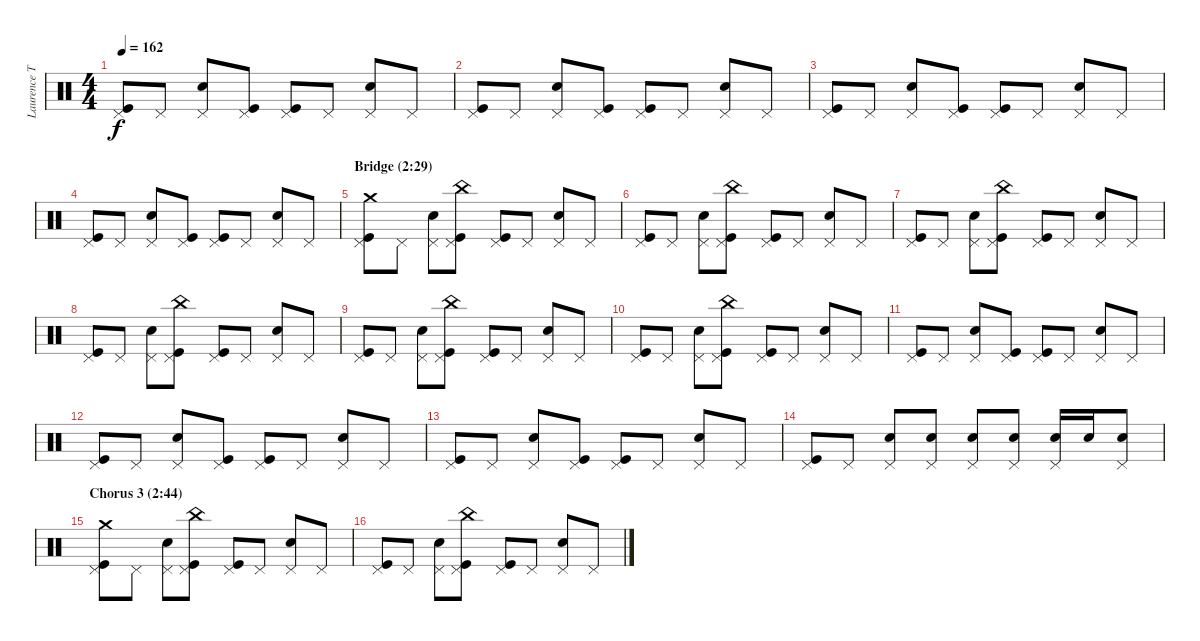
\track ("Laurence Tolhurst (drums)" "Laurence T") {instrument percussion}
\staff {score}
\articulation defaults
\ts (4 4)
\tempo 162
\clef neutral
\ks c
("Pedal Hi-Hat (hit)" "Kick (hit)").8{dy f} "Pedal Hi-Hat (hit)".8 ("Pedal Hi-Hat (hit)" "Snare (hit) 2").8 ("Pedal Hi-Hat (hit)" "Kick (hit)").8 ("Pedal Hi-Hat (hit)" "Kick (hit)").8 "Pedal Hi-Hat (hit)".8 ("Pedal Hi-Hat (hit)" "Snare (hit) 2").8 "Pedal Hi-Hat (hit)".8 |
("Pedal Hi-Hat (hit)" "Kick (hit)").8 "Pedal Hi-Hat (hit)".8 ("Pedal Hi-Hat (hit)" "Snare (hit) 2").8 ("Pedal Hi-Hat (hit)" "Kick (hit)").8 ("Pedal Hi-Hat (hit)" "Kick (hit)").8 "Pedal Hi-Hat (hit)".8 ("Pedal Hi-Hat (hit)" "Snare (hit) 2").8 "Pedal Hi-Hat (hit)".8 |
("Pedal Hi-Hat (hit)" "Kick (hit)").8 "Pedal Hi-Hat (hit)".8 ("Pedal Hi-Hat (hit)" "Snare (hit) 2").8 ("Pedal Hi-Hat (hit)" "Kick (hit)").8 ("Pedal Hi-Hat (hit)" "Kick (hit)").8 "Pedal Hi-Hat (hit)".8 ("Pedal Hi-Hat (hit)" "Snare (hit) 2").8 "Pedal Hi-Hat (hit)".8 |
("Pedal Hi-Hat (hit)" "Kick (hit)").8 "Pedal Hi-Hat (hit)".8 ("Pedal Hi-Hat (hit)" "Snare (hit) 2").8 ("Pedal Hi-Hat (hit)" "Kick (hit)").8 ("Pedal Hi-Hat (hit)" "Kick (hit)").8 "Pedal Hi-Hat (hit)".8 ("Pedal Hi-Hat (hit)" "Snare (hit) 2").8 "Pedal Hi-Hat (hit)".8 |
\section ("" "Bridge (2:29)")
("Crash medium (hit)" "Pedal Hi-Hat (hit)" "Kick (hit)").8 "Pedal Hi-Hat (hit)".8 ("Pedal Hi-Hat (hit)" "Snare (hit) 2").8 ("China (hit)" "Pedal Hi-Hat (hit)" "Kick (hit)").8 ("Pedal Hi-Hat (hit)" "Kick (hit)").8 "Pedal Hi-Hat (hit)".8 ("Pedal Hi-Hat (hit)" "Snare (hit) 2").8 "Pedal Hi-Hat (hit)".8 |
("Pedal Hi-Hat (hit)" "Kick (hit)").8 "Pedal Hi-Hat (hit)".8 ("Pedal Hi-Hat (hit)" "Snare (hit) 2").8 ("China (hit)" "Pedal Hi-Hat (hit)" "Kick (hit)").8 ("Pedal Hi-Hat (hit)" "Kick (hit)").8 "Pedal Hi-Hat (hit)".8 ("Pedal Hi-Hat (hit)" "Snare (hit) 2").8 "Pedal Hi-Hat (hit)".8 |
("Pedal Hi-Hat (hit)" "Kick (hit)").8 "Pedal Hi-Hat (hit)".8 ("Pedal Hi-Hat (hit)" "Snare (hit) 2").8 ("China (hit)" "Pedal Hi-Hat (hit)" "Kick (hit)").8 ("Pedal Hi-Hat (hit)" "Kick (hit)").8 "Pedal Hi-Hat (hit)".8 ("Pedal Hi-Hat (hit)" "Snare (hit) 2").8 "Pedal Hi-Hat (hit)".8 |
("Pedal Hi-Hat (hit)" "Kick (hit)").8 "Pedal Hi-Hat (hit)".8 ("Pedal Hi-Hat (hit)" "Snare (hit) 2").8 ("China (hit)" "Pedal Hi-Hat (hit)" "Kick (hit)").8 ("Pedal Hi-Hat (hit)" "Kick (hit)").8 "Pedal Hi-Hat (hit)".8 ("Pedal Hi-Hat (hit)" "Snare (hit) 2").8 "Pedal Hi-Hat (hit)".8 |
("Pedal Hi-Hat (hit)" "Kick (hit)").8 "Pedal Hi-Hat (hit)".8 ("Pedal Hi-Hat (hit)" "Snare (hit) 2").8 ("China (hit)" "Pedal Hi-Hat (hit)" "Kick (hit)").8 ("Pedal Hi-Hat (hit)" "Kick (hit)").8 "Pedal Hi-Hat (hit)".8 ("Pedal Hi-Hat (hit)" "Snare (hit) 2").8 "Pedal Hi-Hat (hit)".8 |
("Pedal Hi-Hat (hit)" "Kick (hit)").8 "Pedal Hi-Hat (hit)".8 ("Pedal Hi-Hat (hit)" "Snare (hit) 2").8 ("China (hit)" "Pedal Hi-Hat (hit)" "Kick (hit)").8 ("Pedal Hi-Hat (hit)" "Kick (hit)").8 "Pedal Hi-Hat (hit)".8 ("Pedal Hi-Hat (hit)" "Snare (hit) 2").8 "Pedal Hi-Hat (hit)".8 |
("Pedal Hi-Hat (hit)" "Kick (hit)").8 "Pedal Hi-Hat (hit)".8 ("Pedal Hi-Hat (hit)" "Snare (hit) 2").8 ("Pedal Hi-Hat (hit)" "Kick (hit)").8 ("Pedal Hi-Hat (hit)" "Kick (hit)").8 "Pedal Hi-Hat (hit)".8 ("Pedal Hi-Hat (hit)" "Snare (hit) 2").8 "Pedal Hi-Hat (hit)".8 |
("Pedal Hi-Hat (hit)" "Kick (hit)").8 "Pedal Hi-Hat (hit)".8 ("Pedal Hi-Hat (hit)" "Snare (hit) 2").8 ("Pedal Hi-Hat (hit)" "Kick (hit)").8 ("Pedal Hi-Hat (hit)" "Kick (hit)").8 "Pedal Hi-Hat (hit)".8 ("Pedal Hi-Hat (hit)" "Snare (hit) 2").8 "Pedal Hi-Hat (hit)".8 |
("Pedal Hi-Hat (hit)" "Kick (hit)").8 "Pedal Hi-Hat (hit)".8 ("Pedal Hi-Hat (hit)" "Snare (hit) 2").8 ("Pedal Hi-Hat (hit)" "Kick (hit)").8 ("Pedal Hi-Hat (hit)" "Kick (hit)").8 "Pedal Hi-Hat (hit)".8 ("Pedal Hi-Hat (hit)" "Snare (hit) 2").8 "Pedal Hi-Hat (hit)".8 |
("Pedal Hi-Hat (hit)" "Kick (hit)").8 "Pedal Hi-Hat (hit)".8 ("Pedal Hi-Hat (hit)" "Snare (hit) 2").8 ("Pedal Hi-Hat (hit)" "Snare (hit) 2").8 ("Pedal Hi-Hat (hit)" "Snare (hit) 2").8 ("Pedal Hi-Hat (hit)" "Snare (hit) 2").8 ("Pedal Hi-Hat (hit)" "Snare (hit) 2").16 "Snare (hit) 2".16 ("Pedal Hi-Hat (hit)" "Snare (hit) 2").8 |
\section ("" "Chorus 3 (2:44)")
("Crash medium (hit)" "Pedal Hi-Hat (hit)" "Kick (hit)").8 "Pedal Hi-Hat (hit)".8 ("Pedal Hi-Hat (hit)" "Snare (hit) 2").8 ("China (hit)" "Pedal Hi-Hat (hit)" "Kick (hit)").8 ("Pedal Hi-Hat (hit)" "Kick (hit)").8 "Pedal Hi-Hat (hit)".8 ("Pedal Hi-Hat (hit)" "Snare (hit) 2").8 "Pedal Hi-Hat (hit)".8 |
("Pedal Hi-Hat (hit)" "Kick (hit)").8 "Pedal Hi-Hat (hit)".8 ("Pedal Hi-Hat (hit)" "Snare (hit) 2").8 ("China (hit)" "Pedal Hi-Hat (hit)" "Kick (hit)").8 ("Pedal Hi-Hat (hit)" "Kick (hit)").8 "Pedal Hi-Hat (hit)".8 ("Pedal Hi-Hat (hit)" "Snare (hit) 2").8 "Pedal Hi-Hat (hit)".8
